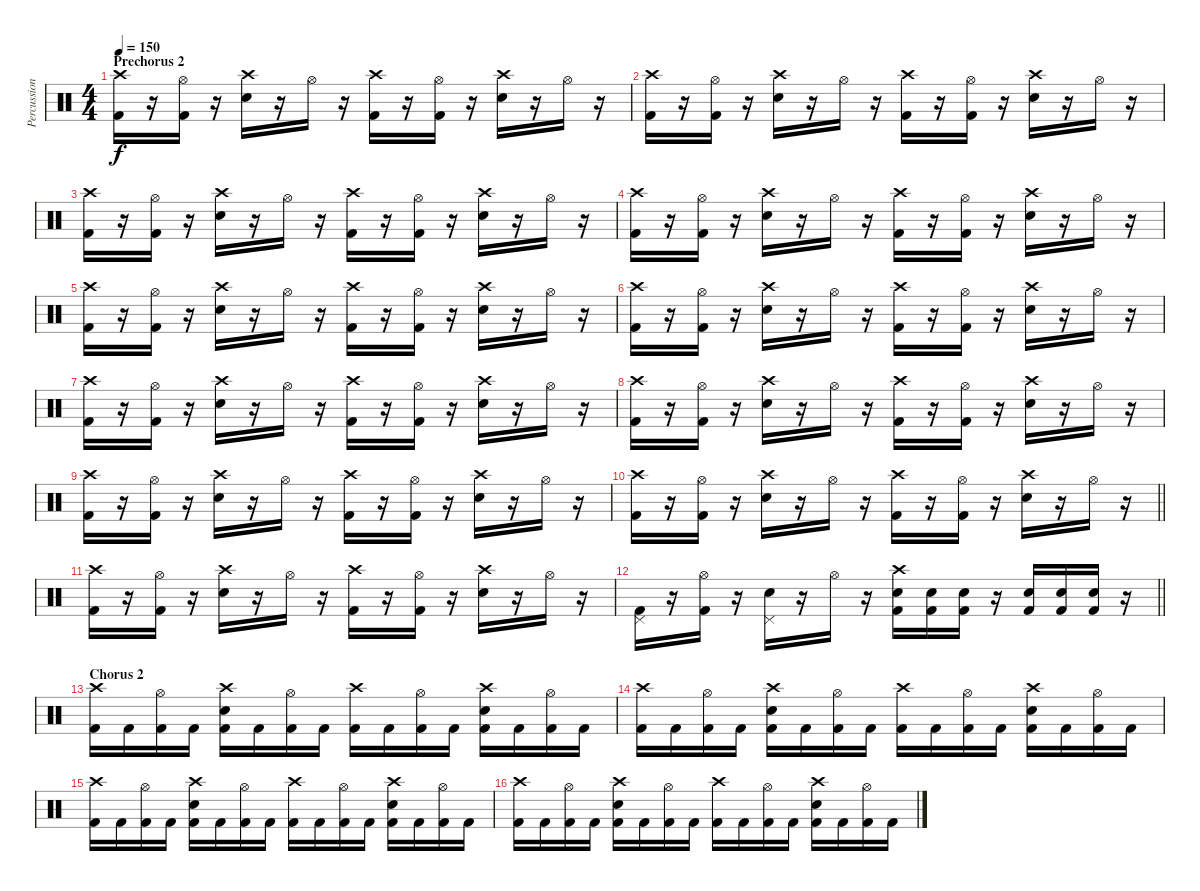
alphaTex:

\track ("Percussion" "Percussion") {instrument percussion}
\staff {score}
\articulation defaults
\ts (4 4)
\section ("" "Prechorus 2")
\tempo 150
\clef neutral
\ks c
("Crash high (hit)" "Kick (hit) 2").16{dy f} r.16 ("Hi-Hat (open)" "Kick (hit) 2").16 r.16 ("Crash high (hit)" "Snare (hit) 2").16 r.16 "Hi-Hat (open)".16 r.16 ("Crash high (hit)" "Kick (hit) 2").16 r.16 ("Hi-Hat (open)" "Kick (hit) 2").16 r.16 ("Crash high (hit)" "Snare (hit) 2").16 r.16 "Hi-Hat (open)".16 r.16 |
("Crash high (hit)" "Kick (hit) 2").16 r.16 ("Hi-Hat (open)" "Kick (hit) 2").16 r.16 ("Crash high (hit)" "Snare (hit) 2").16 r.16 "Hi-Hat (open)".16 r.16 ("Crash high (hit)" "Kick (hit) 2").16 r.16 ("Hi-Hat (open)" "Kick (hit) 2").16 r.16 ("Crash high (hit)" "Snare (hit) 2").16 r.16 "Hi-Hat (open)".16 r.16 |
("Crash high (hit)" "Kick (hit) 2").16 r.16 ("Hi-Hat (open)" "Kick (hit) 2").16 r.16 ("Crash high (hit)" "Snare (hit) 2").16 r.16 "Hi-Hat (open)".16 r.16 ("Crash high (hit)" "Kick (hit) 2").16 r.16 ("Hi-Hat (open)" "Kick (hit) 2").16 r.16 ("Crash high (hit)" "Snare (hit) 2").16 r.16 "Hi-Hat (open)".16 r.16 |
("Crash high (hit)" "Kick (hit) 2").16 r.16 ("Hi-Hat (open)" "Kick (hit) 2").16 r.16 ("Crash high (hit)" "Snare (hit) 2").16 r.16 "Hi-Hat (open)".16 r.16 ("Crash high (hit)" "Kick (hit) 2").16 r.16 ("Hi-Hat (open)" "Kick (hit) 2").16 r.16 ("Crash high (hit)" "Snare (hit) 2").16 r.16 "Hi-Hat (open)".16 r.16 |
("Crash high (hit)" "Kick (hit) 2").16 r.16 ("Hi-Hat (open)" "Kick (hit) 2").16 r.16 ("Crash high (hit)" "Snare (hit) 2").16 r.16 "Hi-Hat (open)".16 r.16 ("Crash high (hit)" "Kick (hit) 2").16 r.16 ("Hi-Hat (open)" "Kick (hit) 2").16 r.16 ("Crash high (hit)" "Snare (hit) 2").16 r.16 "Hi-Hat (open)".16 r.16 |
("Crash high (hit)" "Kick (hit) 2").16 r.16 ("Hi-Hat (open)" "Kick (hit) 2").16 r.16 ("Crash high (hit)" "Snare (hit) 2").16 r.16 "Hi-Hat (open)".16 r.16 ("Crash high (hit)" "Kick (hit) 2").16 r.16 ("Hi-Hat (open)" "Kick (hit) 2").16 r.16 ("Crash high (hit)" "Snare (hit) 2").16 r.16 "Hi-Hat (open)".16 r.16 |
("Crash high (hit)" "Kick (hit) 2").16 r.16 ("Hi-Hat (open)" "Kick (hit) 2").16 r.16 ("Crash high (hit)" "Snare (hit) 2").16 r.16 "Hi-Hat (open)".16 r.16 ("Crash high (hit)" "Kick (hit) 2").16 r.16 ("Hi-Hat (open)" "Kick (hit) 2").16 r.16 ("Crash high (hit)" "Snare (hit) 2").16 r.16 "Hi-Hat (open)".16 r.16 |
("Crash high (hit)" "Kick (hit) 2").16 r.16 ("Hi-Hat (open)" "Kick (hit) 2").16 r.16 ("Crash high (hit)" "Snare (hit) 2").16 r.16 "Hi-Hat (open)".16 r.16 ("Crash high (hit)" "Kick (hit) 2").16 r.16 ("Hi-Hat (open)" "Kick (hit) 2").16 r.16 ("Crash high (hit)" "Snare (hit) 2").16 r.16 "Hi-Hat (open)".16 r.16 |
("Crash high (hit)" "Kick (hit) 2").16 r.16 ("Hi-Hat (open)" "Kick (hit) 2").16 r.16 ("Crash high (hit)" "Snare (hit) 2").16 r.16 "Hi-Hat (open)".16 r.16 ("Crash high (hit)" "Kick (hit) 2").16 r.16 ("Hi-Hat (open)" "Kick (hit) 2").16 r.16 ("Crash high (hit)" "Snare (hit) 2").16 r.16 "Hi-Hat (open)".16 r.16 |
\barLineRight lightlight
("Crash high (hit)" "Kick (hit) 2").16 r.16 ("Hi-Hat (open)" "Kick (hit) 2").16 r.16 ("Crash high (hit)" "Snare (hit) 2").16 r.16 "Hi-Hat (open)".16 r.16 ("Crash high (hit)" "Kick (hit) 2").16 r.16 ("Hi-Hat (open)" "Kick (hit) 2").16 r.16 ("Crash high (hit)" "Snare (hit) 2").16 r.16 "Hi-Hat (open)".16 r.16 |
("Crash high (hit)" "Kick (hit) 2").16 r.16 ("Hi-Hat (open)" "Kick (hit) 2").16 r.16 ("Crash high (hit)" "Snare (hit) 2").16 r.16 "Hi-Hat (open)".16 r.16 ("Crash high (hit)" "Kick (hit) 2").16 r.16 ("Hi-Hat (open)" "Kick (hit) 2").16 r.16 ("Crash high (hit)" "Snare (hit) 2").16 r.16 "Hi-Hat (open)".16 r.16 |
\barLineRight lightlight
("Pedal Hi-Hat (hit)" "Kick (hit) 2").16 r.16 ("Hi-Hat (open)" "Kick (hit) 2").16 r.16 ("Pedal Hi-Hat (hit)" "Snare (hit) 2").16 r.16 "Hi-Hat (open)".16 r.16 ("Crash high (hit)" "Snare (hit) 2" "Kick (hit) 2").16 ("Snare (hit) 2" "Kick (hit) 2").16 ("Snare (hit) 2" "Kick (hit) 2").16 r.16 ("Snare (hit) 2" "Kick (hit) 2").16 ("Snare (hit) 2" "Kick (hit) 2").16 ("Snare (hit) 2" "Kick (hit) 2").16 r.16 |
\section ("" "Chorus 2")
("Crash high (hit)" "Kick (hit) 2").16 "Kick (hit) 2".16 ("Hi-Hat (open)" "Kick (hit) 2").16 "Kick (hit) 2".16 ("Crash high (hit)" "Snare (hit) 2" "Kick (hit) 2").16 "Kick (hit) 2".16 ("Hi-Hat (open)" "Kick (hit) 2").16 "Kick (hit) 2".16 ("Crash high (hit)" "Kick (hit) 2").16 "Kick (hit) 2".16 ("Hi-Hat (open)" "Kick (hit) 2").16 "Kick (hit) 2".16 ("Crash high (hit)" "Snare (hit) 2" "Kick (hit) 2").16 "Kick (hit) 2".16 ("Hi-Hat (open)" "Kick (hit) 2").16 "Kick (hit) 2".16 |
("Crash high (hit)" "Kick (hit) 2").16 "Kick (hit) 2".16 ("Hi-Hat (open)" "Kick (hit) 2").16 "Kick (hit) 2".16 ("Crash high (hit)" "Snare (hit) 2" "Kick (hit) 2").16 "Kick (hit) 2".16 ("Hi-Hat (open)" "Kick (hit) 2").16 "Kick (hit) 2".16 ("Crash high (hit)" "Kick (hit) 2").16 "Kick (hit) 2".16 ("Hi-Hat (open)" "Kick (hit) 2").16 "Kick (hit) 2".16 ("Crash high (hit)" "Snare (hit) 2" "Kick (hit) 2").16 "Kick (hit) 2".16 ("Hi-Hat (open)" "Kick (hit) 2").16 "Kick (hit) 2".16 |
("Crash high (hit)" "Kick (hit) 2").16 "Kick (hit) 2".16 ("Hi-Hat (open)" "Kick (hit) 2").16 "Kick (hit) 2".16 ("Crash high (hit)" "Snare (hit) 2" "Kick (hit) 2").16 "Kick (hit) 2".16 ("Hi-Hat (open)" "Kick (hit) 2").16 "Kick (hit) 2".16 ("Crash high (hit)" "Kick (hit) 2").16 "Kick (hit) 2".16 ("Hi-Hat (open)" "Kick (hit) 2").16 "Kick (hit) 2".16 ("Crash high (hit)" "Snare (hit) 2" "Kick (hit) 2").16 "Kick (hit) 2".16 ("Hi-Hat (open)" "Kick (hit) 2").16 "Kick (hit) 2".16 |
("Crash high (hit)" "Kick (hit) 2").16 "Kick (hit) 2".16 ("Hi-Hat (open)" "Kick (hit) 2").16 "Kick (hit) 2".16 ("Crash high (hit)" "Snare (hit) 2" "Kick (hit) 2").16 "Kick (hit) 2".16 ("Hi-Hat (open)" "Kick (hit) 2").16 "Kick (hit) 2".16 ("Crash high (hit)" "Kick (hit) 2").16 "Kick (hit) 2".16 ("Hi-Hat (open)" "Kick (hit) 2").16 "Kick (hit) 2".16 ("Crash high (hit)" "Snare (hit) 2" "Kick (hit) 2").16 "Kick (hit) 2".16 ("Hi-Hat (open)" "Kick (hit) 2").16 "Kick (hit) 2".16
